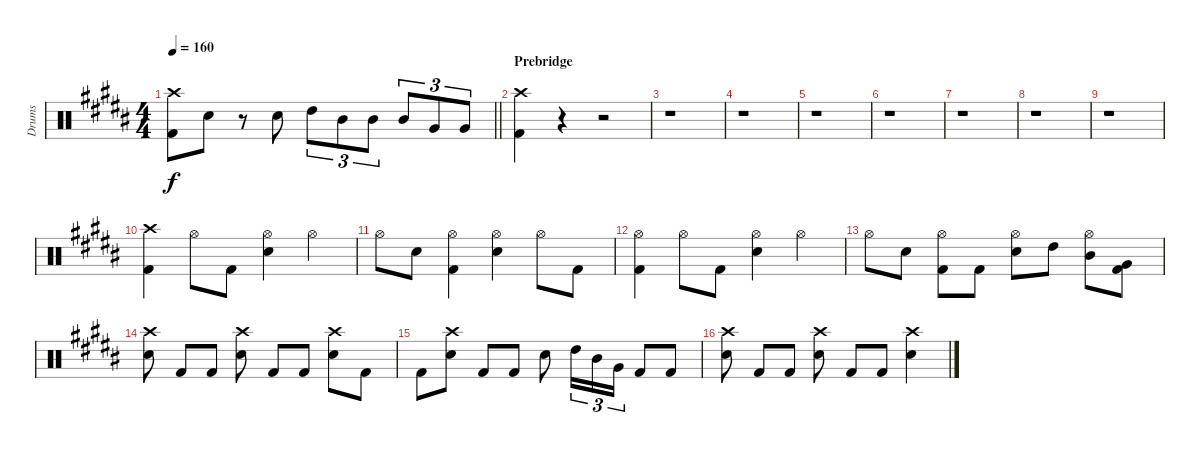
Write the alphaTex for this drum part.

\track ("Drums" "Drums") {instrument percussion}
\staff {score}
\articulation defaults
\ts (4 4)
\tempo 160
\clef neutral
\barLineRight lightlight
\ks b
("Kick (hit) 2" "Crash high (hit)").8{dy f} "Snare (hit) 2".8 r.8 "Snare (hit) 2".8 "High Tom (hit)".8{tu (3 2)} "Mid Tom (hit)".8{tu (3 2)} "Mid Tom (hit)".8{tu (3 2)} "Mid Tom (hit)".8{tu (3 2)} "Very Low Tom (hit)".8{tu (3 2)} "Very Low Tom (hit)".8{tu (3 2)} |
\section ("" "Prebridge")
("Kick (hit) 2" "Crash high (hit)").4 r.4 r.2 |
r.1 |
r.1 |
r.1 |
r.1 |
r.1 |
r.1 |
r.1 |
("Kick (hit) 2" "Crash high (hit)").4 "Hi-Hat (open)".8 "Kick (hit) 2".8 ("Hi-Hat (open)" "Snare (hit) 2").4 "Hi-Hat (open)".4 |
"Hi-Hat (open)".8 "Snare (hit) 2".8 ("Hi-Hat (open)" "Kick (hit) 2").4 ("Hi-Hat (open)" "Snare (hit) 2").4 "Hi-Hat (open)".8 "Kick (hit) 2".8 |
("Hi-Hat (open)" "Kick (hit) 2").4 "Hi-Hat (open)".8 "Kick (hit) 2".8 ("Hi-Hat (open)" "Snare (hit) 2").4 "Hi-Hat (open)".4 |
"Hi-Hat (open)".8 "Snare (hit) 2".8 ("Hi-Hat (open)" "Kick (hit) 2").8 "Kick (hit) 2".8 ("Hi-Hat (open)" "Snare (hit) 2").8 "High Tom (hit)".8 ("Hi-Hat (open)" "Mid Tom (hit)").8 ("Very Low Tom (hit)" "Kick (hit) 2").8 |
("Snare (hit) 2" "Crash high (hit)").8{beam split} "Kick (hit) 2".8{beam merge} "Kick (hit) 2".8{beam split} ("Snare (hit) 2" "Crash high (hit)").8 "Kick (hit) 2".8 "Kick (hit) 2".8 ("Snare (hit) 2" "Crash high (hit)").8 "Kick (hit) 2".8 |
"Kick (hit) 2".8 ("Snare (hit) 2" "Crash high (hit)").8 "Kick (hit) 2".8 "Kick (hit) 2".8 "Snare (hit) 2".8 "High Tom (hit)".16{tu (3 2)} "Mid Tom (hit)".16{tu (3 2)} "Very Low Tom (hit)".16{tu (3 2)} "Kick (hit) 2".8 "Kick (hit) 2".8 |
("Snare (hit) 2" "Crash high (hit)").8{beam split} "Kick (hit) 2".8{beam merge} "Kick (hit) 2".8{beam split} ("Snare (hit) 2" "Crash high (hit)").8 "Kick (hit) 2".8 "Kick (hit) 2".8 ("Snare (hit) 2" "Crash high (hit)").4
